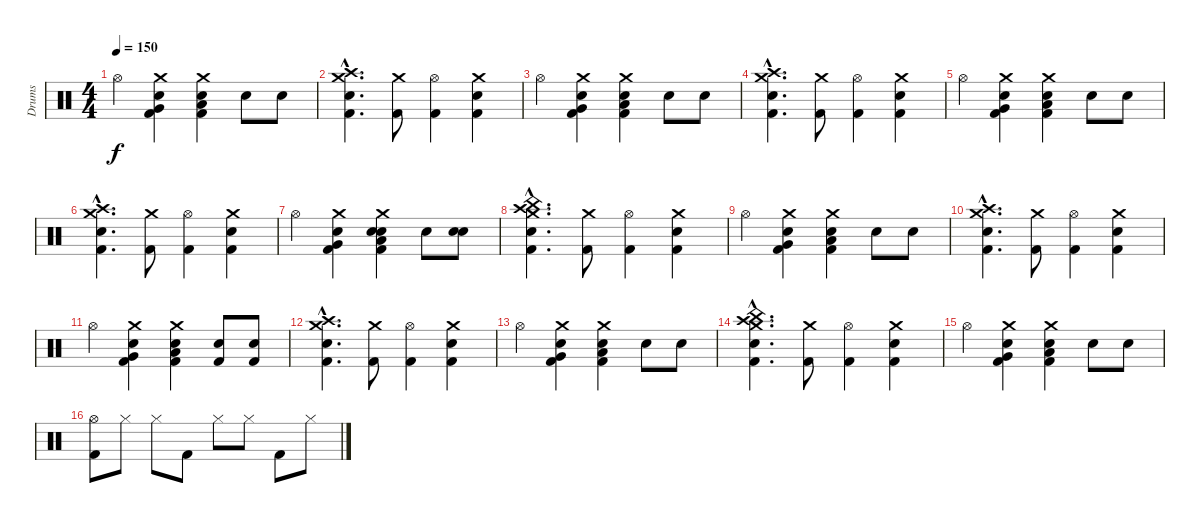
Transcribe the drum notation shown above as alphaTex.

\track ("Drums" "Drums") {instrument percussion}
\staff {score}
\articulation defaults
\ts (4 4)
\tempo 150
\clef neutral
\ks c "Hi-Hat (open)".4{dy f}
("Crash medium (hit)" "Electric Snare (hit)" "Very Low Tom (hit)" "Kick (hit) 2").4 ("Crash medium (hit)" "Electric Snare (hit)" "Low Floor Tom (hit)" "Kick (hit) 2").4 "Electric Snare (hit)".8 "Snare (hit) 2".8 |
("Crash medium (hit)"{hac} "Crash high (hit)"{hac} "Kick (hit) 2"{hac} "Electric Snare (hit)"{hac}).4{d} ("Crash medium (hit)" "Kick (hit) 2").8 ("Hi-Hat (open)" "Kick (hit) 2").4 ("Crash medium (hit)" "Kick (hit) 2" "Electric Snare (hit)").4 |
"Hi-Hat (open)".4 ("Crash medium (hit)" "Electric Snare (hit)" "Very Low Tom (hit)" "Kick (hit) 2").4 ("Crash medium (hit)" "Electric Snare (hit)" "Low Floor Tom (hit)" "Kick (hit) 2").4 "Electric Snare (hit)".8 "Snare (hit) 2".8 |
("Crash medium (hit)"{hac} "Crash high (hit)"{hac} "Kick (hit) 2"{hac} "Electric Snare (hit)"{hac}).4{d} ("Crash medium (hit)" "Kick (hit) 2").8 ("Hi-Hat (open)" "Kick (hit) 2").4 ("Crash medium (hit)" "Kick (hit) 2" "Electric Snare (hit)").4 |
"Hi-Hat (open)".4 ("Crash medium (hit)" "Electric Snare (hit)" "Very Low Tom (hit)" "Kick (hit) 2").4 ("Crash medium (hit)" "Electric Snare (hit)" "Low Floor Tom (hit)" "Kick (hit) 2").4 "Electric Snare (hit)".8 "Snare (hit) 2".8 |
("Crash medium (hit)"{hac} "Crash high (hit)"{hac} "Kick (hit) 2"{hac} "Electric Snare (hit)"{hac}).4{d} ("Crash medium (hit)" "Kick (hit) 2").8 ("Hi-Hat (open)" "Kick (hit) 2").4 ("Crash medium (hit)" "Kick (hit) 2" "Electric Snare (hit)").4 |
"Hi-Hat (open)".4 ("Crash medium (hit)" "Electric Snare (hit)" "Very Low Tom (hit)" "Kick (hit) 2").4 ("Crash medium (hit)" "Electric Snare (hit)" "Low Floor Tom (hit)" "Electric Snare (hit)" "Kick (hit) 2").4 "Electric Snare (hit)".8 ("Snare (hit) 2" "Electric Snare (hit)").8 |
("Crash medium (hit)"{hac} "Crash high (hit)"{hac} "China (hit)"{hac} "Kick (hit) 2"{hac} "Electric Snare (hit)"{hac}).4{d} ("Crash medium (hit)" "Kick (hit) 2").8 ("Hi-Hat (open)" "Kick (hit) 2").4 ("Crash medium (hit)" "Kick (hit) 2" "Electric Snare (hit)").4 |
"Hi-Hat (open)".4 ("Crash medium (hit)" "Electric Snare (hit)" "Very Low Tom (hit)" "Kick (hit) 2").4 ("Crash medium (hit)" "Electric Snare (hit)" "Low Floor Tom (hit)" "Kick (hit) 2").4 "Electric Snare (hit)".8 "Snare (hit) 2".8 |
("Crash medium (hit)"{hac} "Crash high (hit)"{hac} "Kick (hit) 2"{hac} "Electric Snare (hit)"{hac}).4{d} ("Crash medium (hit)" "Kick (hit) 2").8 ("Hi-Hat (open)" "Kick (hit) 2").4 ("Crash medium (hit)" "Kick (hit) 2" "Electric Snare (hit)").4 |
"Hi-Hat (open)".4 ("Crash medium (hit)" "Electric Snare (hit)" "Very Low Tom (hit)" "Kick (hit) 2").4 ("Crash medium (hit)" "Electric Snare (hit)" "Low Floor Tom (hit)" "Kick (hit) 2").4 ("Electric Snare (hit)" "Kick (hit) 2").8 ("Snare (hit) 2" "Kick (hit) 2").8 |
("Crash medium (hit)"{hac} "Crash high (hit)"{hac} "Kick (hit) 2"{hac} "Electric Snare (hit)"{hac}).4{d} ("Crash medium (hit)" "Kick (hit) 2").8 ("Hi-Hat (open)" "Kick (hit) 2").4 ("Crash medium (hit)" "Kick (hit) 2" "Electric Snare (hit)").4 |
"Hi-Hat (open)".4 ("Crash medium (hit)" "Electric Snare (hit)" "Very Low Tom (hit)" "Kick (hit) 2").4 ("Crash medium (hit)" "Electric Snare (hit)" "Low Floor Tom (hit)" "Kick (hit) 2").4 "Electric Snare (hit)".8 "Snare (hit) 2".8 |
("Crash medium (hit)"{hac} "Crash high (hit)"{hac} "China (hit)"{hac} "Kick (hit) 2"{hac} "Electric Snare (hit)"{hac}).4{d} ("Crash medium (hit)" "Kick (hit) 2").8 ("Hi-Hat (open)" "Kick (hit) 2").4 ("Crash medium (hit)" "Kick (hit) 2" "Electric Snare (hit)").4 |
"Hi-Hat (open)".4 ("Crash medium (hit)" "Electric Snare (hit)" "Very Low Tom (hit)" "Kick (hit) 2").4 ("Crash medium (hit)" "Electric Snare (hit)" "Low Floor Tom (hit)" "Kick (hit) 2").4 "Electric Snare (hit)".8 "Snare (hit) 2".8 |
("Hi-Hat (open)" "Kick (hit) 2").8 "Hi-Hat (closed)".8 "Hi-Hat (closed)".8 "Kick (hit) 2".8 "Hi-Hat (closed)".8 "Hi-Hat (closed)".8 "Kick (hit) 2".8 "Hi-Hat (closed)".8
